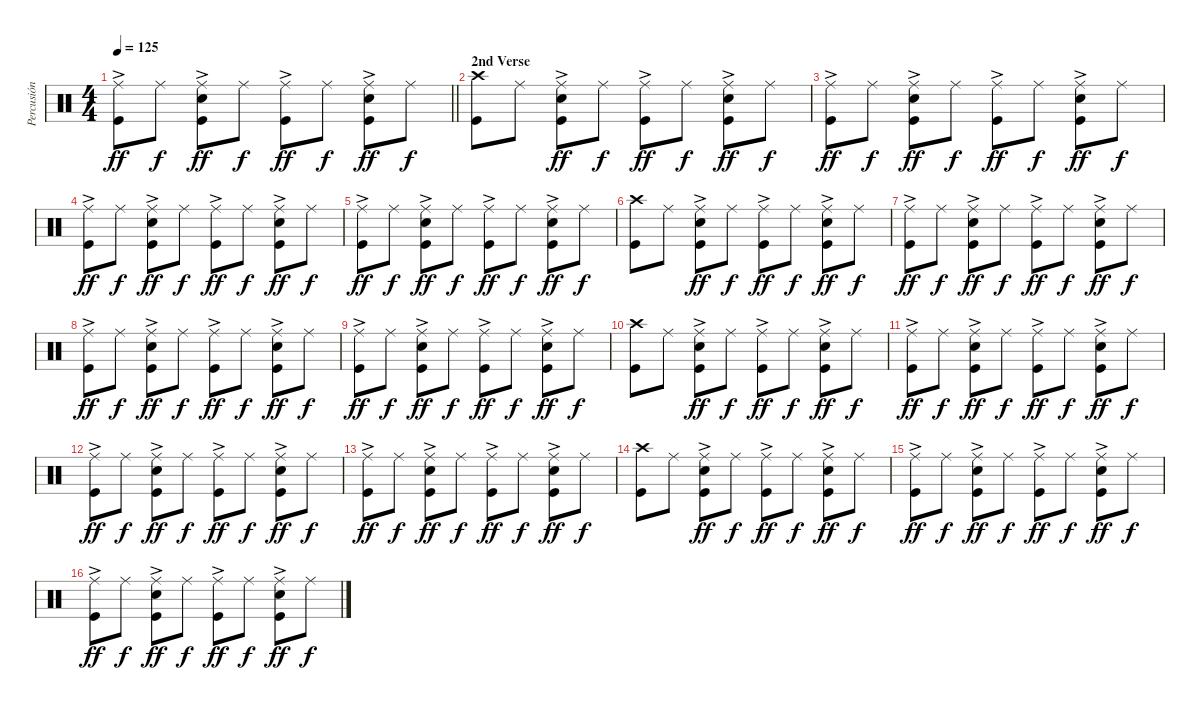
\track ("Percusión" "Percusión") {instrument percussion}
\staff {score}
\articulation defaults
\ts (4 4)
\tempo 125
\clef neutral
\barLineRight lightlight
\ks c
("Ride (middle)"{ac} "Kick (hit)").8{dy ff} "Ride (middle)".8{dy f} ("Ride (middle)"{ac} "Snare (hit) 2" "Kick (hit)").8{dy ff} "Ride (middle)".8{dy f} ("Ride (middle)"{ac} "Kick (hit)").8{dy ff} "Ride (middle)".8{dy f} ("Ride (middle)"{ac} "Snare (hit) 2" "Kick (hit)").8{dy ff} "Ride (middle)".8{dy f} |
\section ("" "2nd Verse")
("Crash high (hit)" "Kick (hit)").8 "Ride (middle)".8 ("Ride (middle)"{ac} "Snare (hit) 2" "Kick (hit)").8{dy ff} "Ride (middle)".8{dy f} ("Ride (middle)"{ac} "Kick (hit)").8{dy ff} "Ride (middle)".8{dy f} ("Ride (middle)"{ac} "Snare (hit) 2" "Kick (hit)").8{dy ff} "Ride (middle)".8{dy f} |
("Ride (middle)"{ac} "Kick (hit)").8{dy ff} "Ride (middle)".8{dy f} ("Ride (middle)"{ac} "Snare (hit) 2" "Kick (hit)").8{dy ff} "Ride (middle)".8{dy f} ("Ride (middle)"{ac} "Kick (hit)").8{dy ff} "Ride (middle)".8{dy f} ("Ride (middle)"{ac} "Snare (hit) 2" "Kick (hit)").8{dy ff} "Ride (middle)".8{dy f} |
("Ride (middle)"{ac} "Kick (hit)").8{dy ff} "Ride (middle)".8{dy f} ("Ride (middle)"{ac} "Snare (hit) 2" "Kick (hit)").8{dy ff} "Ride (middle)".8{dy f} ("Ride (middle)"{ac} "Kick (hit)").8{dy ff} "Ride (middle)".8{dy f} ("Ride (middle)"{ac} "Snare (hit) 2" "Kick (hit)").8{dy ff} "Ride (middle)".8{dy f} |
("Ride (middle)"{ac} "Kick (hit)").8{dy ff} "Ride (middle)".8{dy f} ("Ride (middle)"{ac} "Snare (hit) 2" "Kick (hit)").8{dy ff} "Ride (middle)".8{dy f} ("Ride (middle)"{ac} "Kick (hit)").8{dy ff} "Ride (middle)".8{dy f} ("Ride (middle)"{ac} "Snare (hit) 2" "Kick (hit)").8{dy ff} "Ride (middle)".8{dy f} |
("Crash high (hit)" "Kick (hit)").8 "Ride (middle)".8 ("Ride (middle)"{ac} "Snare (hit) 2" "Kick (hit)").8{dy ff} "Ride (middle)".8{dy f} ("Ride (middle)"{ac} "Kick (hit)").8{dy ff} "Ride (middle)".8{dy f} ("Ride (middle)"{ac} "Snare (hit) 2" "Kick (hit)").8{dy ff} "Ride (middle)".8{dy f} |
("Ride (middle)"{ac} "Kick (hit)").8{dy ff} "Ride (middle)".8{dy f} ("Ride (middle)"{ac} "Snare (hit) 2" "Kick (hit)").8{dy ff} "Ride (middle)".8{dy f} ("Ride (middle)"{ac} "Kick (hit)").8{dy ff} "Ride (middle)".8{dy f} ("Ride (middle)"{ac} "Snare (hit) 2" "Kick (hit)").8{dy ff} "Ride (middle)".8{dy f} |
("Ride (middle)"{ac} "Kick (hit)").8{dy ff} "Ride (middle)".8{dy f} ("Ride (middle)"{ac} "Snare (hit) 2" "Kick (hit)").8{dy ff} "Ride (middle)".8{dy f} ("Ride (middle)"{ac} "Kick (hit)").8{dy ff} "Ride (middle)".8{dy f} ("Ride (middle)"{ac} "Snare (hit) 2" "Kick (hit)").8{dy ff} "Ride (middle)".8{dy f} |
("Ride (middle)"{ac} "Kick (hit)").8{dy ff} "Ride (middle)".8{dy f} ("Ride (middle)"{ac} "Snare (hit) 2" "Kick (hit)").8{dy ff} "Ride (middle)".8{dy f} ("Ride (middle)"{ac} "Kick (hit)").8{dy ff} "Ride (middle)".8{dy f} ("Ride (middle)"{ac} "Snare (hit) 2" "Kick (hit)").8{dy ff} "Ride (middle)".8{dy f} |
("Crash high (hit)" "Kick (hit)").8 "Ride (middle)".8 ("Ride (middle)"{ac} "Snare (hit) 2" "Kick (hit)").8{dy ff} "Ride (middle)".8{dy f} ("Ride (middle)"{ac} "Kick (hit)").8{dy ff} "Ride (middle)".8{dy f} ("Ride (middle)"{ac} "Snare (hit) 2" "Kick (hit)").8{dy ff} "Ride (middle)".8{dy f} |
("Ride (middle)"{ac} "Kick (hit)").8{dy ff} "Ride (middle)".8{dy f} ("Ride (middle)"{ac} "Snare (hit) 2" "Kick (hit)").8{dy ff} "Ride (middle)".8{dy f} ("Ride (middle)"{ac} "Kick (hit)").8{dy ff} "Ride (middle)".8{dy f} ("Ride (middle)"{ac} "Snare (hit) 2" "Kick (hit)").8{dy ff} "Ride (middle)".8{dy f} |
("Ride (middle)"{ac} "Kick (hit)").8{dy ff} "Ride (middle)".8{dy f} ("Ride (middle)"{ac} "Snare (hit) 2" "Kick (hit)").8{dy ff} "Ride (middle)".8{dy f} ("Ride (middle)"{ac} "Kick (hit)").8{dy ff} "Ride (middle)".8{dy f} ("Ride (middle)"{ac} "Snare (hit) 2" "Kick (hit)").8{dy ff} "Ride (middle)".8{dy f} |
("Ride (middle)"{ac} "Kick (hit)").8{dy ff} "Ride (middle)".8{dy f} ("Ride (middle)"{ac} "Snare (hit) 2" "Kick (hit)").8{dy ff} "Ride (middle)".8{dy f} ("Ride (middle)"{ac} "Kick (hit)").8{dy ff} "Ride (middle)".8{dy f} ("Ride (middle)"{ac} "Snare (hit) 2" "Kick (hit)").8{dy ff} "Ride (middle)".8{dy f} |
("Crash high (hit)" "Kick (hit)").8 "Ride (middle)".8 ("Ride (middle)"{ac} "Snare (hit) 2" "Kick (hit)").8{dy ff} "Ride (middle)".8{dy f} ("Ride (middle)"{ac} "Kick (hit)").8{dy ff} "Ride (middle)".8{dy f} ("Ride (middle)"{ac} "Snare (hit) 2" "Kick (hit)").8{dy ff} "Ride (middle)".8{dy f} |
("Ride (middle)"{ac} "Kick (hit)").8{dy ff} "Ride (middle)".8{dy f} ("Ride (middle)"{ac} "Snare (hit) 2" "Kick (hit)").8{dy ff} "Ride (middle)".8{dy f} ("Ride (middle)"{ac} "Kick (hit)").8{dy ff} "Ride (middle)".8{dy f} ("Ride (middle)"{ac} "Snare (hit) 2" "Kick (hit)").8{dy ff} "Ride (middle)".8{dy f} |
("Ride (middle)"{ac} "Kick (hit)").8{dy ff} "Ride (middle)".8{dy f} ("Ride (middle)"{ac} "Snare (hit) 2" "Kick (hit)").8{dy ff} "Ride (middle)".8{dy f} ("Ride (middle)"{ac} "Kick (hit)").8{dy ff} "Ride (middle)".8{dy f} ("Ride (middle)"{ac} "Snare (hit) 2" "Kick (hit)").8{dy ff} "Ride (middle)".8{dy f}
